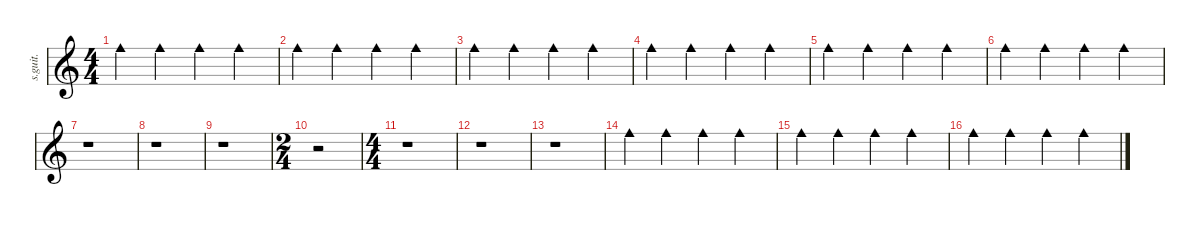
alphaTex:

\defaultSystemsLayout 4
\hideDynamics
\bracketExtendMode nobrackets
\track ("Cowbell" "s.guit.") {instrument percussion}
\staff {score}
\articulation defaults
\ts (4 4)
\tempo (107 hide)
\clef g2
\ks c "Cowbell medium (hit)".4{dy mp} "Cowbell medium (hit)".4 "Cowbell medium (hit)".4 "Cowbell medium (hit)".4
|
"Cowbell medium (hit)".4 "Cowbell medium (hit)".4 "Cowbell medium (hit)".4 "Cowbell medium (hit)".4 |
"Cowbell medium (hit)".4 "Cowbell medium (hit)".4 "Cowbell medium (hit)".4 "Cowbell medium (hit)".4 |
"Cowbell medium (hit)".4 "Cowbell medium (hit)".4 "Cowbell medium (hit)".4 "Cowbell medium (hit)".4 |
"Cowbell medium (hit)".4 "Cowbell medium (hit)".4 "Cowbell medium (hit)".4 "Cowbell medium (hit)".4 |
"Cowbell medium (hit)".4 "Cowbell medium (hit)".4 "Cowbell medium (hit)".4 "Cowbell medium (hit)".4 |
r.1 |
r.1 |
r.1 |
\ts (2 4)
\beaming (8 2 2 2 2)
r.2 |
\ts (4 4)
\beaming (8 2 2 2 2)
r.1 |
r.1 |
r.1 |
"Cowbell medium (hit)".4 "Cowbell medium (hit)".4 "Cowbell medium (hit)".4 "Cowbell medium (hit)".4 |
"Cowbell medium (hit)".4 "Cowbell medium (hit)".4 "Cowbell medium (hit)".4 "Cowbell medium (hit)".4 |
"Cowbell medium (hit)".4 "Cowbell medium (hit)".4 "Cowbell medium (hit)".4 "Cowbell medium (hit)".4
